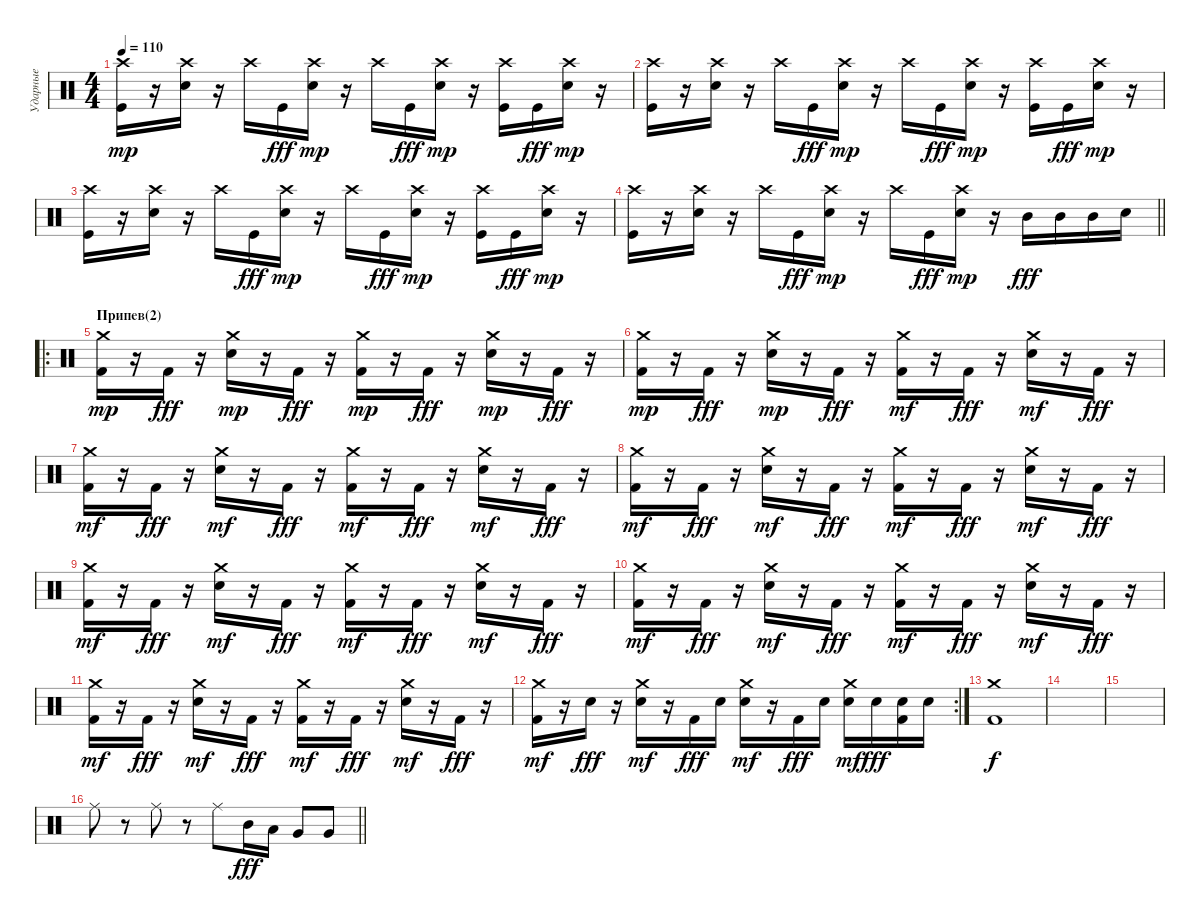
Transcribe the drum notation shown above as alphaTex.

\track ("Ударные" "Ударные") {instrument percussion}
\staff {score}
\articulation defaults
\ts (4 4)
\tempo 110
\clef neutral
\ks c
("Kick (hit)" "Crash high (hit)").16{dy mp} r.16 ("Electric Snare (hit)" "Crash high (hit)").16 r.16 "Crash high (hit)".16 "Kick (hit)".16{dy fff} ("Electric Snare (hit)" "Crash high (hit)").16{dy mp} r.16 "Crash high (hit)".16 "Kick (hit)".16{dy fff} ("Electric Snare (hit)" "Crash high (hit)").16{dy mp} r.16 ("Kick (hit)" "Crash high (hit)").16 "Kick (hit)".16{dy fff} ("Electric Snare (hit)" "Crash high (hit)").16{dy mp} r.16 |
("Kick (hit)" "Crash high (hit)").16 r.16 ("Electric Snare (hit)" "Crash high (hit)").16 r.16 "Crash high (hit)".16 "Kick (hit)".16{dy fff} ("Electric Snare (hit)" "Crash high (hit)").16{dy mp} r.16 "Crash high (hit)".16 "Kick (hit)".16{dy fff} ("Electric Snare (hit)" "Crash high (hit)").16{dy mp} r.16 ("Kick (hit)" "Crash high (hit)").16 "Kick (hit)".16{dy fff} ("Electric Snare (hit)" "Crash high (hit)").16{dy mp} r.16 |
("Kick (hit)" "Crash high (hit)").16 r.16 ("Electric Snare (hit)" "Crash high (hit)").16 r.16 "Crash high (hit)".16 "Kick (hit)".16{dy fff} ("Electric Snare (hit)" "Crash high (hit)").16{dy mp} r.16 "Crash high (hit)".16 "Kick (hit)".16{dy fff} ("Electric Snare (hit)" "Crash high (hit)").16{dy mp} r.16 ("Kick (hit)" "Crash high (hit)").16 "Kick (hit)".16{dy fff} ("Electric Snare (hit)" "Crash high (hit)").16{dy mp} r.16 |
\barLineRight lightlight
("Kick (hit)" "Crash high (hit)").16 r.16 ("Electric Snare (hit)" "Crash high (hit)").16 r.16 "Crash high (hit)".16 "Kick (hit)".16{dy fff} ("Electric Snare (hit)" "Crash high (hit)").16{dy mp} r.16 "Crash high (hit)".16 "Kick (hit)".16{dy fff} ("Electric Snare (hit)" "Crash high (hit)").16{dy mp} r.16 "Mid Tom (hit)".16{dy fff} "Mid Tom (hit)".16 "Mid Tom (hit)".16 "Electric Snare (hit)".16 |
\ro
\section ("" "Припев(2)")
("Kick (hit) 2" "Crash medium (hit)").16{dy mp} r.16 "Kick (hit) 2".16{dy fff} r.16 ("Snare (hit) 2" "Crash medium (hit)").16{dy mp} r.16 "Kick (hit) 2".16{dy fff} r.16 ("Kick (hit) 2" "Crash medium (hit)").16{dy mp} r.16 "Kick (hit) 2".16{dy fff} r.16 ("Snare (hit) 2" "Crash medium (hit)").16{dy mp} r.16 "Kick (hit) 2".16{dy fff} r.16 |
("Kick (hit) 2" "Crash medium (hit)").16{dy mp} r.16 "Kick (hit) 2".16{dy fff} r.16 ("Snare (hit) 2" "Crash medium (hit)").16{dy mp} r.16 "Kick (hit) 2".16{dy fff} r.16 ("Kick (hit) 2" "Crash medium (hit)").16{dy mf} r.16 "Kick (hit) 2".16{dy fff} r.16 ("Snare (hit) 2" "Crash medium (hit)").16{dy mf} r.16 "Kick (hit) 2".16{dy fff} r.16 |
("Kick (hit) 2" "Crash medium (hit)").16{dy mf} r.16 "Kick (hit) 2".16{dy fff} r.16 ("Snare (hit) 2" "Crash medium (hit)").16{dy mf} r.16 "Kick (hit) 2".16{dy fff} r.16 ("Kick (hit) 2" "Crash medium (hit)").16{dy mf} r.16 "Kick (hit) 2".16{dy fff} r.16 ("Snare (hit) 2" "Crash medium (hit)").16{dy mf} r.16 "Kick (hit) 2".16{dy fff} r.16 |
("Kick (hit) 2" "Crash medium (hit)").16{dy mf} r.16 "Kick (hit) 2".16{dy fff} r.16 ("Snare (hit) 2" "Crash medium (hit)").16{dy mf} r.16 "Kick (hit) 2".16{dy fff} r.16 ("Kick (hit) 2" "Crash medium (hit)").16{dy mf} r.16 "Kick (hit) 2".16{dy fff} r.16 ("Snare (hit) 2" "Crash medium (hit)").16{dy mf} r.16 "Kick (hit) 2".16{dy fff} r.16 |
("Kick (hit) 2" "Crash medium (hit)").16{dy mf} r.16 "Kick (hit) 2".16{dy fff} r.16 ("Snare (hit) 2" "Crash medium (hit)").16{dy mf} r.16 "Kick (hit) 2".16{dy fff} r.16 ("Kick (hit) 2" "Crash medium (hit)").16{dy mf} r.16 "Kick (hit) 2".16{dy fff} r.16 ("Snare (hit) 2" "Crash medium (hit)").16{dy mf} r.16 "Kick (hit) 2".16{dy fff} r.16 |
("Kick (hit) 2" "Crash medium (hit)").16{dy mf} r.16 "Kick (hit) 2".16{dy fff} r.16 ("Snare (hit) 2" "Crash medium (hit)").16{dy mf} r.16 "Kick (hit) 2".16{dy fff} r.16 ("Kick (hit) 2" "Crash medium (hit)").16{dy mf} r.16 "Kick (hit) 2".16{dy fff} r.16 ("Snare (hit) 2" "Crash medium (hit)").16{dy mf} r.16 "Kick (hit) 2".16{dy fff} r.16 |
("Kick (hit) 2" "Crash medium (hit)").16{dy mf} r.16 "Kick (hit) 2".16{dy fff} r.16 ("Snare (hit) 2" "Crash medium (hit)").16{dy mf} r.16 "Kick (hit) 2".16{dy fff} r.16 ("Kick (hit) 2" "Crash medium (hit)").16{dy mf} r.16 "Kick (hit) 2".16{dy fff} r.16 ("Snare (hit) 2" "Crash medium (hit)").16{dy mf} r.16 "Kick (hit) 2".16{dy fff} r.16 |
\rc 2
("Kick (hit) 2" "Crash medium (hit)").16{dy mf} r.16 "Electric Snare (hit)".16{dy fff} r.16 ("Electric Snare (hit)" "Crash medium (hit)").16{dy mf} r.16 "Kick (hit) 2".16{dy fff} "Electric Snare (hit)".16 ("Electric Snare (hit)" "Crash medium (hit)").16{dy mf} r.16 "Kick (hit) 2".16{dy fff} "Electric Snare (hit)".16 ("Electric Snare (hit)" "Crash medium (hit)").16{dy mf} "Electric Snare (hit)".16{dy fff} ("Kick (hit) 2" "Electric Snare (hit)").16 "Electric Snare (hit)".16 |
("Kick (hit) 2" "Crash medium (hit)").1{dy f} |
|
|
\barLineRight lightlight "Ride (middle)".8
r.8 "Ride (middle)".8 r.8 "Ride (middle)".8 "Mid Tom (hit)".16{dy fff} "Low Tom (hit)".16 "Very Low Tom (hit)".8 "Very Low Tom (hit)".8
